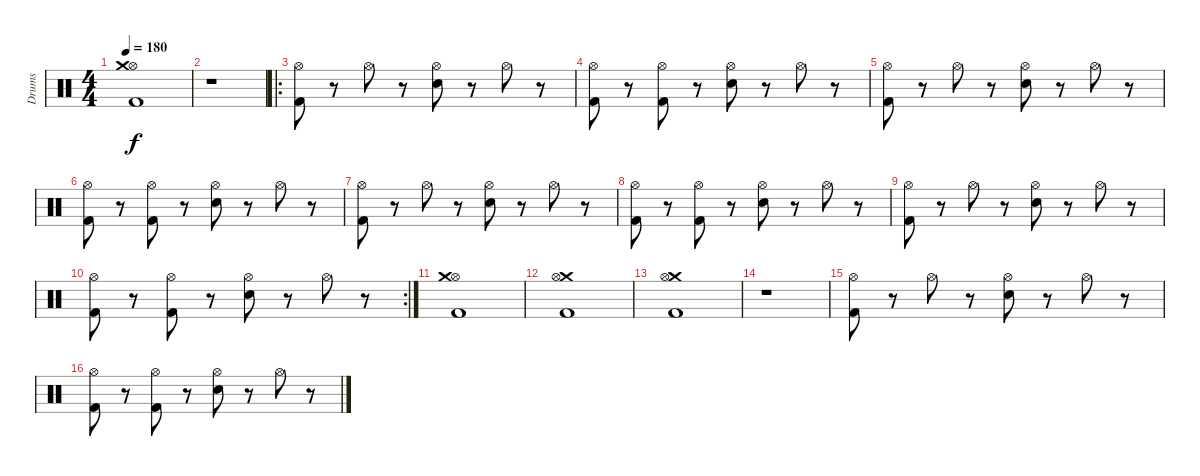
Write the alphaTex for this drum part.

\track ("Drums" "Drums") {instrument percussion}
\staff {score}
\articulation defaults
\ts (4 4)
\tempo 180
\clef neutral
\ks c
("Kick (hit) 2" "Hi-Hat (open)" "Crash medium (hit)").1{dy f} |
r.1 |
\ro
("Hi-Hat (open)" "Kick (hit) 2").8 r.8 "Hi-Hat (open)".8 r.8 ("Hi-Hat (open)" "Electric Snare (hit)").8 r.8 "Hi-Hat (open)".8 r.8 |
("Hi-Hat (open)" "Kick (hit) 2").8 r.8 ("Hi-Hat (open)" "Kick (hit) 2").8 r.8 ("Hi-Hat (open)" "Electric Snare (hit)").8 r.8 "Hi-Hat (open)".8 r.8 |
("Hi-Hat (open)" "Kick (hit) 2").8 r.8 "Hi-Hat (open)".8 r.8 ("Hi-Hat (open)" "Electric Snare (hit)").8 r.8 "Hi-Hat (open)".8 r.8 |
("Hi-Hat (open)" "Kick (hit) 2").8 r.8 ("Hi-Hat (open)" "Kick (hit) 2").8 r.8 ("Hi-Hat (open)" "Electric Snare (hit)").8 r.8 "Hi-Hat (open)".8 r.8 |
("Hi-Hat (open)" "Kick (hit) 2").8 r.8 "Hi-Hat (open)".8 r.8 ("Hi-Hat (open)" "Electric Snare (hit)").8 r.8 "Hi-Hat (open)".8 r.8 |
("Hi-Hat (open)" "Kick (hit) 2").8 r.8 ("Hi-Hat (open)" "Kick (hit) 2").8 r.8 ("Hi-Hat (open)" "Electric Snare (hit)").8 r.8 "Hi-Hat (open)".8 r.8 |
("Hi-Hat (open)" "Kick (hit) 2").8 r.8 "Hi-Hat (open)".8 r.8 ("Hi-Hat (open)" "Electric Snare (hit)").8 r.8 "Hi-Hat (open)".8 r.8 |
\rc 2
("Hi-Hat (open)" "Kick (hit) 2").8 r.8 ("Hi-Hat (open)" "Kick (hit) 2").8 r.8 ("Hi-Hat (open)" "Electric Snare (hit)").8 r.8 "Hi-Hat (open)".8 r.8 |
("Hi-Hat (open)" "Crash medium (hit)" "Kick (hit) 2").1 |
("Crash medium (hit)" "Hi-Hat (open)" "Kick (hit) 2").1 |
("Crash medium (hit)" "Hi-Hat (open)" "Kick (hit) 2").1 |
r.1 |
("Hi-Hat (open)" "Kick (hit) 2").8 r.8 "Hi-Hat (open)".8 r.8 ("Hi-Hat (open)" "Electric Snare (hit)").8 r.8 "Hi-Hat (open)".8 r.8 |
("Hi-Hat (open)" "Kick (hit) 2").8 r.8 ("Hi-Hat (open)" "Kick (hit) 2").8 r.8 ("Hi-Hat (open)" "Electric Snare (hit)").8 r.8 "Hi-Hat (open)".8 r.8
